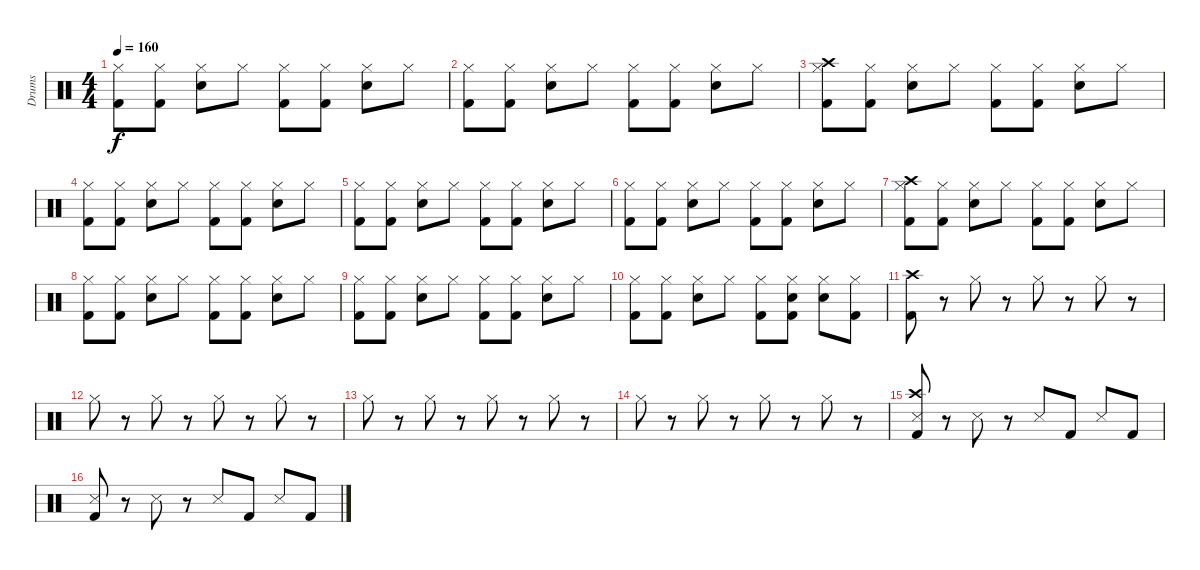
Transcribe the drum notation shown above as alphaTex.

\track ("Drums" "Drums") {instrument percussion}
\staff {score}
\articulation defaults
\ts (4 4)
\tempo 160
\clef neutral
\ks c
("Kick (hit) 2" "Hi-Hat (closed)").8{dy f} ("Kick (hit) 2" "Hi-Hat (closed)").8 ("Electric Snare (hit)" "Hi-Hat (closed)").8 "Hi-Hat (closed)".8 ("Kick (hit) 2" "Hi-Hat (closed)").8 ("Kick (hit) 2" "Hi-Hat (closed)").8 ("Electric Snare (hit)" "Hi-Hat (closed)").8 "Hi-Hat (closed)".8 |
("Kick (hit) 2" "Hi-Hat (closed)").8 ("Kick (hit) 2" "Hi-Hat (closed)").8 ("Electric Snare (hit)" "Hi-Hat (closed)").8 "Hi-Hat (closed)".8 ("Kick (hit) 2" "Hi-Hat (closed)").8 ("Kick (hit) 2" "Hi-Hat (closed)").8 ("Electric Snare (hit)" "Hi-Hat (closed)").8 "Hi-Hat (closed)".8 |
("Kick (hit) 2" "Crash high (hit)" "Hi-Hat (closed)").8 ("Kick (hit) 2" "Hi-Hat (closed)").8 ("Electric Snare (hit)" "Hi-Hat (closed)").8 "Hi-Hat (closed)".8 ("Kick (hit) 2" "Hi-Hat (closed)").8 ("Kick (hit) 2" "Hi-Hat (closed)").8 ("Electric Snare (hit)" "Hi-Hat (closed)").8 "Hi-Hat (closed)".8 |
("Kick (hit) 2" "Hi-Hat (closed)").8 ("Kick (hit) 2" "Hi-Hat (closed)").8 ("Electric Snare (hit)" "Hi-Hat (closed)").8 "Hi-Hat (closed)".8 ("Kick (hit) 2" "Hi-Hat (closed)").8 ("Kick (hit) 2" "Hi-Hat (closed)").8 ("Electric Snare (hit)" "Hi-Hat (closed)").8 "Hi-Hat (closed)".8 |
("Kick (hit) 2" "Hi-Hat (closed)").8 ("Kick (hit) 2" "Hi-Hat (closed)").8 ("Electric Snare (hit)" "Hi-Hat (closed)").8 "Hi-Hat (closed)".8 ("Kick (hit) 2" "Hi-Hat (closed)").8 ("Kick (hit) 2" "Hi-Hat (closed)").8 ("Electric Snare (hit)" "Hi-Hat (closed)").8 "Hi-Hat (closed)".8 |
("Kick (hit) 2" "Hi-Hat (closed)").8 ("Kick (hit) 2" "Hi-Hat (closed)").8 ("Electric Snare (hit)" "Hi-Hat (closed)").8 "Hi-Hat (closed)".8 ("Kick (hit) 2" "Hi-Hat (closed)").8 ("Kick (hit) 2" "Hi-Hat (closed)").8 ("Electric Snare (hit)" "Hi-Hat (closed)").8 "Hi-Hat (closed)".8 |
("Kick (hit) 2" "Crash high (hit)" "Hi-Hat (closed)").8 ("Kick (hit) 2" "Hi-Hat (closed)").8 ("Electric Snare (hit)" "Hi-Hat (closed)").8 "Hi-Hat (closed)".8 ("Kick (hit) 2" "Hi-Hat (closed)").8 ("Kick (hit) 2" "Hi-Hat (closed)").8 ("Electric Snare (hit)" "Hi-Hat (closed)").8 "Hi-Hat (closed)".8 |
("Kick (hit) 2" "Hi-Hat (closed)").8 ("Kick (hit) 2" "Hi-Hat (closed)").8 ("Electric Snare (hit)" "Hi-Hat (closed)").8 "Hi-Hat (closed)".8 ("Kick (hit) 2" "Hi-Hat (closed)").8 ("Kick (hit) 2" "Hi-Hat (closed)").8 ("Electric Snare (hit)" "Hi-Hat (closed)").8 "Hi-Hat (closed)".8 |
("Kick (hit) 2" "Hi-Hat (closed)").8 ("Kick (hit) 2" "Hi-Hat (closed)").8 ("Electric Snare (hit)" "Hi-Hat (closed)").8 "Hi-Hat (closed)".8 ("Kick (hit) 2" "Hi-Hat (closed)").8 ("Kick (hit) 2" "Hi-Hat (closed)").8 ("Electric Snare (hit)" "Hi-Hat (closed)").8 "Hi-Hat (closed)".8 |
("Kick (hit) 2" "Hi-Hat (closed)").8 ("Kick (hit) 2" "Hi-Hat (closed)").8 ("Electric Snare (hit)" "Hi-Hat (closed)").8 "Hi-Hat (closed)".8 ("Kick (hit) 2" "Hi-Hat (closed)").8 ("Kick (hit) 2" "Electric Snare (hit)" "Hi-Hat (closed)").8 ("Electric Snare (hit)" "Hi-Hat (closed)").8 ("Kick (hit) 2" "Hi-Hat (closed)").8 |
("Kick (hit) 2" "Crash high (hit)").8 r.8 "Hi-Hat (closed)".8 r.8 "Hi-Hat (closed)".8 r.8 "Hi-Hat (closed)".8 r.8 |
"Hi-Hat (closed)".8 r.8 "Hi-Hat (closed)".8 r.8 "Hi-Hat (closed)".8 r.8 "Hi-Hat (closed)".8 r.8 |
"Hi-Hat (closed)".8 r.8 "Hi-Hat (closed)".8 r.8 "Hi-Hat (closed)".8 r.8 "Hi-Hat (closed)".8 r.8 |
"Hi-Hat (closed)".8 r.8 "Hi-Hat (closed)".8 r.8 "Hi-Hat (closed)".8 r.8 "Hi-Hat (closed)".8 r.8 |
("Kick (hit) 2" "Crash high (hit)" "Metronome (hit)").8 r.8 "Metronome (hit)".8 r.8 "Metronome (hit)".8 "Kick (hit) 2".8 "Metronome (hit)".8 "Kick (hit) 2".8 |
("Kick (hit) 2" "Metronome (hit)").8 r.8 "Metronome (hit)".8 r.8 "Metronome (hit)".8 "Kick (hit) 2".8 "Metronome (hit)".8 "Kick (hit) 2".8
